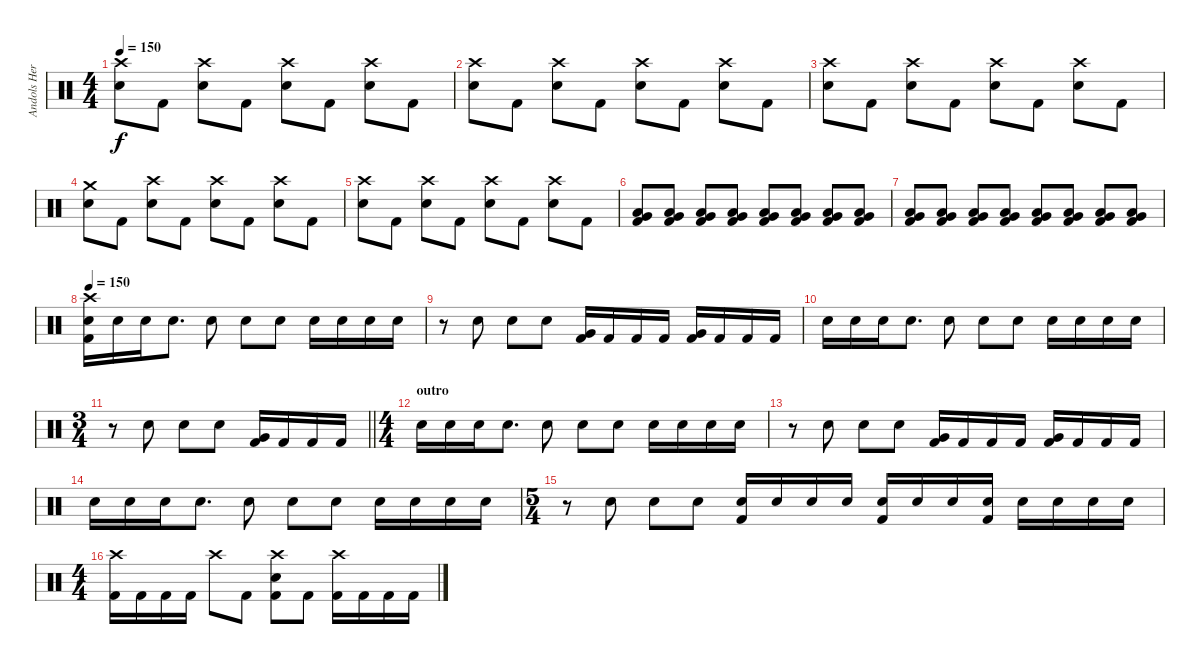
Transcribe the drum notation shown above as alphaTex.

\track ("Andols Herrick" "Andols Her") {instrument percussion}
\staff {score}
\articulation defaults
\ts (4 4)
\tempo 150
\clef neutral
\ks c
("Crash high (hit)" "Electric Snare (hit)").8{dy f} "Kick (hit) 2".8 ("Crash high (hit)" "Electric Snare (hit)").8 "Kick (hit) 2".8 ("Crash high (hit)" "Electric Snare (hit)").8 "Kick (hit) 2".8 ("Crash high (hit)" "Electric Snare (hit)").8 "Kick (hit) 2".8 |
("Crash high (hit)" "Electric Snare (hit)").8 "Kick (hit) 2".8 ("Crash high (hit)" "Electric Snare (hit)").8 "Kick (hit) 2".8 ("Crash high (hit)" "Electric Snare (hit)").8 "Kick (hit) 2".8 ("Crash high (hit)" "Electric Snare (hit)").8 "Kick (hit) 2".8 |
("Crash high (hit)" "Electric Snare (hit)").8 "Kick (hit) 2".8 ("Crash high (hit)" "Electric Snare (hit)").8 "Kick (hit) 2".8 ("Crash high (hit)" "Electric Snare (hit)").8 "Kick (hit) 2".8 ("Crash high (hit)" "Electric Snare (hit)").8 "Kick (hit) 2".8 |
("Crash medium (hit)" "Electric Snare (hit)").8 "Kick (hit) 2".8 ("Crash high (hit)" "Electric Snare (hit)").8 "Kick (hit) 2".8 ("Crash high (hit)" "Electric Snare (hit)").8 "Kick (hit) 2".8 ("Crash high (hit)" "Electric Snare (hit)").8 "Kick (hit) 2".8 |
("Crash high (hit)" "Electric Snare (hit)").8 "Kick (hit) 2".8 ("Crash high (hit)" "Electric Snare (hit)").8 "Kick (hit) 2".8 ("Crash high (hit)" "Electric Snare (hit)").8 "Kick (hit) 2".8 ("Crash high (hit)" "Electric Snare (hit)").8 "Kick (hit) 2".8 |
("Very Low Tom (hit)" "Low Floor Tom (hit)" "Kick (hit) 2").8{volume 2} ("Very Low Tom (hit)" "Low Floor Tom (hit)" "Kick (hit) 2").8{volume 12} ("Very Low Tom (hit)" "Low Floor Tom (hit)" "Kick (hit) 2").8 ("Very Low Tom (hit)" "Low Floor Tom (hit)" "Kick (hit) 2").8 ("Very Low Tom (hit)" "Low Floor Tom (hit)" "Kick (hit) 2").8 ("Very Low Tom (hit)" "Low Floor Tom (hit)" "Kick (hit) 2").8 ("Very Low Tom (hit)" "Low Floor Tom (hit)" "Kick (hit) 2").8 ("Very Low Tom (hit)" "Low Floor Tom (hit)" "Kick (hit) 2").8 |
("Very Low Tom (hit)" "Low Floor Tom (hit)" "Kick (hit) 2").8 ("Very Low Tom (hit)" "Low Floor Tom (hit)" "Kick (hit) 2").8 ("Very Low Tom (hit)" "Low Floor Tom (hit)" "Kick (hit) 2").8 ("Very Low Tom (hit)" "Low Floor Tom (hit)" "Kick (hit) 2").8 ("Very Low Tom (hit)" "Low Floor Tom (hit)" "Kick (hit) 2").8 ("Very Low Tom (hit)" "Low Floor Tom (hit)" "Kick (hit) 2").8 ("Very Low Tom (hit)" "Low Floor Tom (hit)" "Kick (hit) 2").8 ("Very Low Tom (hit)" "Low Floor Tom (hit)" "Kick (hit) 2").8 |
\tempo 150
("Crash high (hit)" "Electric Snare (hit)" "Kick (hit) 2").16 "Electric Snare (hit)".16 "Electric Snare (hit)".16 "Electric Snare (hit)".8{d} "Electric Snare (hit)".8 "Electric Snare (hit)".8 "Electric Snare (hit)".8 "Electric Snare (hit)".16 "Electric Snare (hit)".16 "Electric Snare (hit)".16 "Electric Snare (hit)".16 |
r.8 "Electric Snare (hit)".8 "Electric Snare (hit)".8 "Electric Snare (hit)".8 ("Very Low Tom (hit)" "Kick (hit) 2").16 "Kick (hit) 2".16 "Kick (hit) 2".16 "Kick (hit) 2".16 ("Very Low Tom (hit)" "Kick (hit) 2").16 "Kick (hit) 2".16 "Kick (hit) 2".16 "Kick (hit) 2".16 |
"Electric Snare (hit)".16 "Electric Snare (hit)".16 "Electric Snare (hit)".16 "Electric Snare (hit)".8{d} "Electric Snare (hit)".8 "Electric Snare (hit)".8 "Electric Snare (hit)".8 "Electric Snare (hit)".16 "Electric Snare (hit)".16 "Electric Snare (hit)".16 "Electric Snare (hit)".16 |
\ts (3 4)
\barLineRight lightlight
r.8 "Electric Snare (hit)".8 "Electric Snare (hit)".8 "Electric Snare (hit)".8 ("Very Low Tom (hit)" "Kick (hit) 2").16 "Kick (hit) 2".16 "Kick (hit) 2".16 "Kick (hit) 2".16 |
\ts (4 4)
\section ("" "outro")
"Electric Snare (hit)".16 "Electric Snare (hit)".16 "Electric Snare (hit)".16 "Electric Snare (hit)".8{d} "Electric Snare (hit)".8 "Electric Snare (hit)".8 "Electric Snare (hit)".8 "Electric Snare (hit)".16 "Electric Snare (hit)".16 "Electric Snare (hit)".16 "Electric Snare (hit)".16 |
r.8 "Electric Snare (hit)".8 "Electric Snare (hit)".8 "Electric Snare (hit)".8 ("Very Low Tom (hit)" "Kick (hit) 2").16 "Kick (hit) 2".16 "Kick (hit) 2".16 "Kick (hit) 2".16 ("Very Low Tom (hit)" "Kick (hit) 2").16 "Kick (hit) 2".16 "Kick (hit) 2".16 "Kick (hit) 2".16 |
"Electric Snare (hit)".16 "Electric Snare (hit)".16 "Electric Snare (hit)".16 "Electric Snare (hit)".8{d} "Electric Snare (hit)".8 "Electric Snare (hit)".8 "Electric Snare (hit)".8 "Electric Snare (hit)".16 "Electric Snare (hit)".16 "Electric Snare (hit)".16 "Electric Snare (hit)".16 |
\ts (5 4)
r.8 "Electric Snare (hit)".8 "Electric Snare (hit)".8 "Electric Snare (hit)".8 ("Electric Snare (hit)" "Kick (hit) 2").16 "Electric Snare (hit)".16 "Electric Snare (hit)".16 "Electric Snare (hit)".16 ("Electric Snare (hit)" "Kick (hit) 2").16 "Electric Snare (hit)".16 "Electric Snare (hit)".16 ("Electric Snare (hit)" "Kick (hit) 2").16 "Electric Snare (hit)".16 "Electric Snare (hit)".16 "Electric Snare (hit)".16 "Electric Snare (hit)".16 |
\ts (4 4)
("Crash high (hit)" "Kick (hit) 2").16 "Kick (hit) 2".16 "Kick (hit) 2".16 "Kick (hit) 2".16 "Crash high (hit)".8 "Kick (hit) 2".8 ("Crash high (hit)" "Electric Snare (hit)" "Kick (hit) 2").8 "Kick (hit) 2".8 ("Crash high (hit)" "Kick (hit) 2").16 "Kick (hit) 2".16 "Kick (hit) 2".16 "Kick (hit) 2".16
